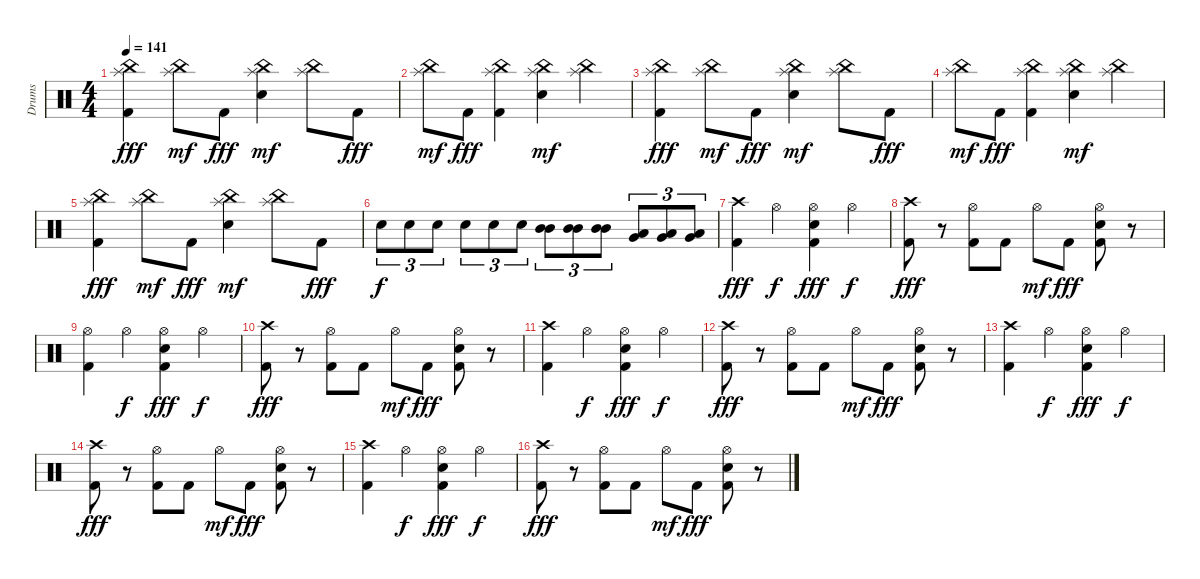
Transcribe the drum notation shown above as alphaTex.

\track ("Drums" "Drums") {instrument percussion}
\staff {score}
\articulation defaults
\ts (4 4)
\tempo 141
\clef neutral
\ks c
("China (hit)" "Splash (hit)" "Kick (hit) 2").4{dy fff} ("China (hit)" "Splash (hit)").8{dy mf} "Kick (hit) 2".8{dy fff} ("China (hit)" "Splash (hit)" "Electric Snare (hit)").4{dy mf} ("China (hit)" "Splash (hit)").8 "Kick (hit) 2".8{dy fff} |
("China (hit)" "Splash (hit)").8{dy mf} "Kick (hit) 2".8{dy fff} ("China (hit)" "Splash (hit)" "Kick (hit) 2").4 ("China (hit)" "Splash (hit)" "Electric Snare (hit)").4{dy mf} ("China (hit)" "Splash (hit)").4 |
("China (hit)" "Splash (hit)" "Kick (hit) 2").4{dy fff} ("China (hit)" "Splash (hit)").8{dy mf} "Kick (hit) 2".8{dy fff} ("China (hit)" "Splash (hit)" "Electric Snare (hit)").4{dy mf} ("China (hit)" "Splash (hit)").8 "Kick (hit) 2".8{dy fff} |
("China (hit)" "Splash (hit)").8{dy mf} "Kick (hit) 2".8{dy fff} ("China (hit)" "Splash (hit)" "Kick (hit) 2").4 ("China (hit)" "Splash (hit)" "Electric Snare (hit)").4{dy mf} ("China (hit)" "Splash (hit)").4 |
("China (hit)" "Splash (hit)" "Kick (hit) 2").4{dy fff} ("China (hit)" "Splash (hit)").8{dy mf} "Kick (hit) 2".8{dy fff} ("China (hit)" "Splash (hit)" "Electric Snare (hit)").4{dy mf} ("China (hit)" "Splash (hit)").8 "Kick (hit) 2".8{dy fff} |
"Electric Snare (hit)".8{tu (3 2) dy f} "Electric Snare (hit)".8{tu (3 2)} "Electric Snare (hit)".8{tu (3 2)} "Electric Snare (hit)".8{tu (3 2)} "Electric Snare (hit)".8{tu (3 2)} "Electric Snare (hit)".8{tu (3 2)} ("Mid Tom (hit)" "Mid Tom (hit)").8{tu (3 2)} ("Mid Tom (hit)" "Mid Tom (hit)").8{tu (3 2)} ("Mid Tom (hit)" "Mid Tom (hit)").8{tu (3 2)} ("Very Low Tom (hit)" "Low Tom (hit)").8{tu (3 2)} ("Very Low Tom (hit)" "Low Tom (hit)").8{tu (3 2)} ("Very Low Tom (hit)" "Low Tom (hit)").8{tu (3 2)} |
("Crash high (hit)" "Kick (hit) 2").4{dy fff} "Hi-Hat (open)".4{dy f} ("Hi-Hat (open)" "Electric Snare (hit)" "Kick (hit) 2").4{dy fff} "Hi-Hat (open)".4{dy f} |
("Crash high (hit)" "Kick (hit) 2").8{dy fff} r.8 ("Hi-Hat (open)" "Kick (hit) 2").8 "Kick (hit) 2".8 "Hi-Hat (open)".8{dy mf} "Kick (hit) 2".8{dy fff} ("Hi-Hat (open)" "Electric Snare (hit)" "Kick (hit) 2").8 r.8 |
("Hi-Hat (open)" "Kick (hit) 2").4 "Hi-Hat (open)".4{dy f} ("Hi-Hat (open)" "Electric Snare (hit)" "Kick (hit) 2").4{dy fff} "Hi-Hat (open)".4{dy f} |
("Crash high (hit)" "Kick (hit) 2").8{dy fff} r.8 ("Hi-Hat (open)" "Kick (hit) 2").8 "Kick (hit) 2".8 "Hi-Hat (open)".8{dy mf} "Kick (hit) 2".8{dy fff} ("Hi-Hat (open)" "Electric Snare (hit)" "Kick (hit) 2").8 r.8 |
("Crash high (hit)" "Kick (hit) 2").4 "Hi-Hat (open)".4{dy f} ("Hi-Hat (open)" "Electric Snare (hit)" "Kick (hit) 2").4{dy fff} "Hi-Hat (open)".4{dy f} |
("Crash high (hit)" "Kick (hit) 2").8{dy fff} r.8 ("Hi-Hat (open)" "Kick (hit) 2").8 "Kick (hit) 2".8 "Hi-Hat (open)".8{dy mf} "Kick (hit) 2".8{dy fff} ("Hi-Hat (open)" "Electric Snare (hit)" "Kick (hit) 2").8 r.8 |
("Crash high (hit)" "Kick (hit) 2").4 "Hi-Hat (open)".4{dy f} ("Hi-Hat (open)" "Electric Snare (hit)" "Kick (hit) 2").4{dy fff} "Hi-Hat (open)".4{dy f} |
("Crash high (hit)" "Kick (hit) 2").8{dy fff} r.8 ("Hi-Hat (open)" "Kick (hit) 2").8 "Kick (hit) 2".8 "Hi-Hat (open)".8{dy mf} "Kick (hit) 2".8{dy fff} ("Hi-Hat (open)" "Electric Snare (hit)" "Kick (hit) 2").8 r.8 |
("Crash high (hit)" "Kick (hit) 2").4 "Hi-Hat (open)".4{dy f} ("Hi-Hat (open)" "Electric Snare (hit)" "Kick (hit) 2").4{dy fff} "Hi-Hat (open)".4{dy f} |
("Crash high (hit)" "Kick (hit) 2").8{dy fff} r.8 ("Hi-Hat (open)" "Kick (hit) 2").8 "Kick (hit) 2".8 "Hi-Hat (open)".8{dy mf} "Kick (hit) 2".8{dy fff} ("Hi-Hat (open)" "Electric Snare (hit)" "Kick (hit) 2").8 r.8
